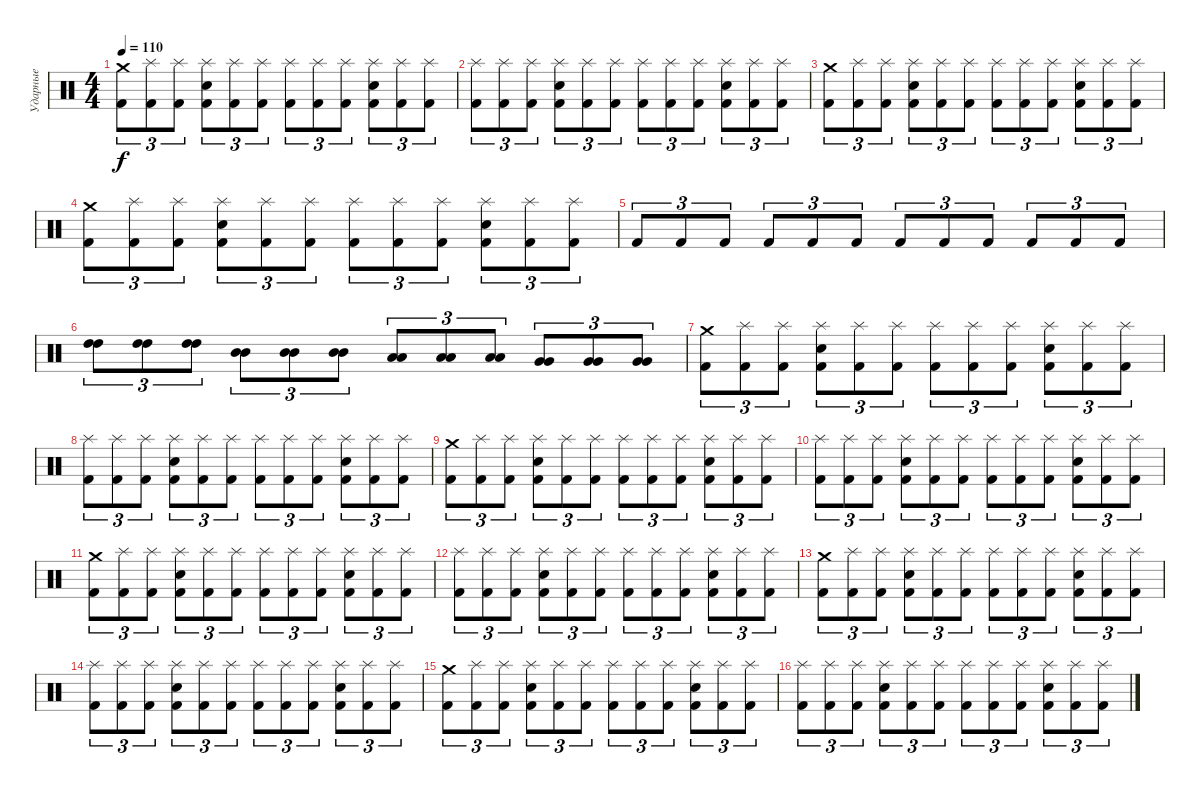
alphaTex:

\track ("Ударные" "Ударные") {instrument percussion}
\staff {score}
\articulation defaults
\ts (4 4)
\tempo 110
\clef neutral
\ks c
("Crash medium (hit)" "Kick (hit) 2").8{tu (3 2) dy f} ("Splash (hit)" "Kick (hit) 2").8{tu (3 2)} ("Splash (hit)" "Kick (hit) 2").8{tu (3 2)} ("Splash (hit)" "Electric Snare (hit)" "Kick (hit) 2").8{tu (3 2)} ("Splash (hit)" "Kick (hit) 2").8{tu (3 2)} ("Splash (hit)" "Kick (hit) 2").8{tu (3 2)} ("Splash (hit)" "Kick (hit) 2").8{tu (3 2)} ("Splash (hit)" "Kick (hit) 2").8{tu (3 2)} ("Splash (hit)" "Kick (hit) 2").8{tu (3 2)} ("Splash (hit)" "Electric Snare (hit)" "Kick (hit) 2").8{tu (3 2)} ("Splash (hit)" "Kick (hit) 2").8{tu (3 2)} ("Splash (hit)" "Kick (hit) 2").8{tu (3 2)} |
("Splash (hit)" "Kick (hit) 2").8{tu (3 2)} ("Splash (hit)" "Kick (hit) 2").8{tu (3 2)} ("Splash (hit)" "Kick (hit) 2").8{tu (3 2)} ("Splash (hit)" "Electric Snare (hit)" "Kick (hit) 2").8{tu (3 2)} ("Splash (hit)" "Kick (hit) 2").8{tu (3 2)} ("Splash (hit)" "Kick (hit) 2").8{tu (3 2)} ("Splash (hit)" "Kick (hit) 2").8{tu (3 2)} ("Splash (hit)" "Kick (hit) 2").8{tu (3 2)} ("Splash (hit)" "Kick (hit) 2").8{tu (3 2)} ("Splash (hit)" "Electric Snare (hit)" "Kick (hit) 2").8{tu (3 2)} ("Splash (hit)" "Kick (hit) 2").8{tu (3 2)} ("Splash (hit)" "Kick (hit) 2").8{tu (3 2)} |
("Crash medium (hit)" "Kick (hit) 2").8{tu (3 2)} ("Splash (hit)" "Kick (hit) 2").8{tu (3 2)} ("Splash (hit)" "Kick (hit) 2").8{tu (3 2)} ("Splash (hit)" "Electric Snare (hit)" "Kick (hit) 2").8{tu (3 2)} ("Splash (hit)" "Kick (hit) 2").8{tu (3 2)} ("Splash (hit)" "Kick (hit) 2").8{tu (3 2)} ("Splash (hit)" "Kick (hit) 2").8{tu (3 2)} ("Splash (hit)" "Kick (hit) 2").8{tu (3 2)} ("Splash (hit)" "Kick (hit) 2").8{tu (3 2)} ("Splash (hit)" "Electric Snare (hit)" "Kick (hit) 2").8{tu (3 2)} ("Splash (hit)" "Kick (hit) 2").8{tu (3 2)} ("Splash (hit)" "Kick (hit) 2").8{tu (3 2)} |
("Crash medium (hit)" "Kick (hit) 2").8{tu (3 2)} ("Splash (hit)" "Kick (hit) 2").8{tu (3 2)} ("Splash (hit)" "Kick (hit) 2").8{tu (3 2)} ("Splash (hit)" "Electric Snare (hit)" "Kick (hit) 2").8{tu (3 2)} ("Splash (hit)" "Kick (hit) 2").8{tu (3 2)} ("Splash (hit)" "Kick (hit) 2").8{tu (3 2)} ("Splash (hit)" "Kick (hit) 2").8{tu (3 2)} ("Splash (hit)" "Kick (hit) 2").8{tu (3 2)} ("Splash (hit)" "Kick (hit) 2").8{tu (3 2)} ("Splash (hit)" "Electric Snare (hit)" "Kick (hit) 2").8{tu (3 2)} ("Splash (hit)" "Kick (hit) 2").8{tu (3 2)} ("Splash (hit)" "Kick (hit) 2").8{tu (3 2)} |
"Kick (hit) 2".8{tu (3 2)} "Kick (hit) 2".8{tu (3 2)} "Kick (hit) 2".8{tu (3 2)} "Kick (hit) 2".8{tu (3 2)} "Kick (hit) 2".8{tu (3 2)} "Kick (hit) 2".8{tu (3 2)} "Kick (hit) 2".8{tu (3 2)} "Kick (hit) 2".8{tu (3 2)} "Kick (hit) 2".8{tu (3 2)} "Kick (hit) 2".8{tu (3 2)} "Kick (hit) 2".8{tu (3 2)} "Kick (hit) 2".8{tu (3 2)} |
("High Tom (hit)" "High Tom (hit)").8{tu (3 2)} ("High Tom (hit)" "High Tom (hit)").8{tu (3 2)} ("High Tom (hit)" "High Tom (hit)").8{tu (3 2)} ("Mid Tom (hit)" "Mid Tom (hit)").8{tu (3 2)} ("Mid Tom (hit)" "Mid Tom (hit)").8{tu (3 2)} ("Mid Tom (hit)" "Mid Tom (hit)").8{tu (3 2)} ("Low Tom (hit)" "Low Tom (hit)").8{tu (3 2)} ("Low Tom (hit)" "Low Tom (hit)").8{tu (3 2)} ("Low Tom (hit)" "Low Tom (hit)").8{tu (3 2)} ("Very Low Tom (hit)" "Very Low Tom (hit)").8{tu (3 2)} ("Very Low Tom (hit)" "Very Low Tom (hit)").8{tu (3 2)} ("Very Low Tom (hit)" "Very Low Tom (hit)").8{tu (3 2)} |
("Crash medium (hit)" "Kick (hit) 2").8{tu (3 2)} ("Splash (hit)" "Kick (hit) 2").8{tu (3 2)} ("Splash (hit)" "Kick (hit) 2").8{tu (3 2)} ("Splash (hit)" "Electric Snare (hit)" "Kick (hit) 2").8{tu (3 2)} ("Splash (hit)" "Kick (hit) 2").8{tu (3 2)} ("Splash (hit)" "Kick (hit) 2").8{tu (3 2)} ("Splash (hit)" "Kick (hit) 2").8{tu (3 2)} ("Splash (hit)" "Kick (hit) 2").8{tu (3 2)} ("Splash (hit)" "Kick (hit) 2").8{tu (3 2)} ("Splash (hit)" "Electric Snare (hit)" "Kick (hit) 2").8{tu (3 2)} ("Splash (hit)" "Kick (hit) 2").8{tu (3 2)} ("Splash (hit)" "Kick (hit) 2").8{tu (3 2)} |
("Splash (hit)" "Kick (hit) 2").8{tu (3 2)} ("Splash (hit)" "Kick (hit) 2").8{tu (3 2)} ("Splash (hit)" "Kick (hit) 2").8{tu (3 2)} ("Splash (hit)" "Electric Snare (hit)" "Kick (hit) 2").8{tu (3 2)} ("Splash (hit)" "Kick (hit) 2").8{tu (3 2)} ("Splash (hit)" "Kick (hit) 2").8{tu (3 2)} ("Splash (hit)" "Kick (hit) 2").8{tu (3 2)} ("Splash (hit)" "Kick (hit) 2").8{tu (3 2)} ("Splash (hit)" "Kick (hit) 2").8{tu (3 2)} ("Splash (hit)" "Electric Snare (hit)" "Kick (hit) 2").8{tu (3 2)} ("Splash (hit)" "Kick (hit) 2").8{tu (3 2)} ("Splash (hit)" "Kick (hit) 2").8{tu (3 2)} |
("Crash medium (hit)" "Kick (hit) 2").8{tu (3 2)} ("Splash (hit)" "Kick (hit) 2").8{tu (3 2)} ("Splash (hit)" "Kick (hit) 2").8{tu (3 2)} ("Splash (hit)" "Electric Snare (hit)" "Kick (hit) 2").8{tu (3 2)} ("Splash (hit)" "Kick (hit) 2").8{tu (3 2)} ("Splash (hit)" "Kick (hit) 2").8{tu (3 2)} ("Splash (hit)" "Kick (hit) 2").8{tu (3 2)} ("Splash (hit)" "Kick (hit) 2").8{tu (3 2)} ("Splash (hit)" "Kick (hit) 2").8{tu (3 2)} ("Splash (hit)" "Electric Snare (hit)" "Kick (hit) 2").8{tu (3 2)} ("Splash (hit)" "Kick (hit) 2").8{tu (3 2)} ("Splash (hit)" "Kick (hit) 2").8{tu (3 2)} |
("Splash (hit)" "Kick (hit) 2").8{tu (3 2)} ("Splash (hit)" "Kick (hit) 2").8{tu (3 2)} ("Splash (hit)" "Kick (hit) 2").8{tu (3 2)} ("Splash (hit)" "Electric Snare (hit)" "Kick (hit) 2").8{tu (3 2)} ("Splash (hit)" "Kick (hit) 2").8{tu (3 2)} ("Splash (hit)" "Kick (hit) 2").8{tu (3 2)} ("Splash (hit)" "Kick (hit) 2").8{tu (3 2)} ("Splash (hit)" "Kick (hit) 2").8{tu (3 2)} ("Splash (hit)" "Kick (hit) 2").8{tu (3 2)} ("Splash (hit)" "Electric Snare (hit)" "Kick (hit) 2").8{tu (3 2)} ("Splash (hit)" "Kick (hit) 2").8{tu (3 2)} ("Splash (hit)" "Kick (hit) 2").8{tu (3 2)} |
("Crash medium (hit)" "Kick (hit) 2").8{tu (3 2)} ("Splash (hit)" "Kick (hit) 2").8{tu (3 2)} ("Splash (hit)" "Kick (hit) 2").8{tu (3 2)} ("Splash (hit)" "Electric Snare (hit)" "Kick (hit) 2").8{tu (3 2)} ("Splash (hit)" "Kick (hit) 2").8{tu (3 2)} ("Splash (hit)" "Kick (hit) 2").8{tu (3 2)} ("Splash (hit)" "Kick (hit) 2").8{tu (3 2)} ("Splash (hit)" "Kick (hit) 2").8{tu (3 2)} ("Splash (hit)" "Kick (hit) 2").8{tu (3 2)} ("Splash (hit)" "Electric Snare (hit)" "Kick (hit) 2").8{tu (3 2)} ("Splash (hit)" "Kick (hit) 2").8{tu (3 2)} ("Splash (hit)" "Kick (hit) 2").8{tu (3 2)} |
("Splash (hit)" "Kick (hit) 2").8{tu (3 2)} ("Splash (hit)" "Kick (hit) 2").8{tu (3 2)} ("Splash (hit)" "Kick (hit) 2").8{tu (3 2)} ("Splash (hit)" "Electric Snare (hit)" "Kick (hit) 2").8{tu (3 2)} ("Splash (hit)" "Kick (hit) 2").8{tu (3 2)} ("Splash (hit)" "Kick (hit) 2").8{tu (3 2)} ("Splash (hit)" "Kick (hit) 2").8{tu (3 2)} ("Splash (hit)" "Kick (hit) 2").8{tu (3 2)} ("Splash (hit)" "Kick (hit) 2").8{tu (3 2)} ("Splash (hit)" "Electric Snare (hit)" "Kick (hit) 2").8{tu (3 2)} ("Splash (hit)" "Kick (hit) 2").8{tu (3 2)} ("Splash (hit)" "Kick (hit) 2").8{tu (3 2)} |
("Crash medium (hit)" "Kick (hit) 2").8{tu (3 2)} ("Splash (hit)" "Kick (hit) 2").8{tu (3 2)} ("Splash (hit)" "Kick (hit) 2").8{tu (3 2)} ("Splash (hit)" "Electric Snare (hit)" "Kick (hit) 2").8{tu (3 2)} ("Splash (hit)" "Kick (hit) 2").8{tu (3 2)} ("Splash (hit)" "Kick (hit) 2").8{tu (3 2)} ("Splash (hit)" "Kick (hit) 2").8{tu (3 2)} ("Splash (hit)" "Kick (hit) 2").8{tu (3 2)} ("Splash (hit)" "Kick (hit) 2").8{tu (3 2)} ("Splash (hit)" "Electric Snare (hit)" "Kick (hit) 2").8{tu (3 2)} ("Splash (hit)" "Kick (hit) 2").8{tu (3 2)} ("Splash (hit)" "Kick (hit) 2").8{tu (3 2)} |
("Splash (hit)" "Kick (hit) 2").8{tu (3 2)} ("Splash (hit)" "Kick (hit) 2").8{tu (3 2)} ("Splash (hit)" "Kick (hit) 2").8{tu (3 2)} ("Splash (hit)" "Electric Snare (hit)" "Kick (hit) 2").8{tu (3 2)} ("Splash (hit)" "Kick (hit) 2").8{tu (3 2)} ("Splash (hit)" "Kick (hit) 2").8{tu (3 2)} ("Splash (hit)" "Kick (hit) 2").8{tu (3 2)} ("Splash (hit)" "Kick (hit) 2").8{tu (3 2)} ("Splash (hit)" "Kick (hit) 2").8{tu (3 2)} ("Splash (hit)" "Electric Snare (hit)" "Kick (hit) 2").8{tu (3 2)} ("Splash (hit)" "Kick (hit) 2").8{tu (3 2)} ("Splash (hit)" "Kick (hit) 2").8{tu (3 2)} |
("Crash medium (hit)" "Kick (hit) 2").8{tu (3 2)} ("Splash (hit)" "Kick (hit) 2").8{tu (3 2)} ("Splash (hit)" "Kick (hit) 2").8{tu (3 2)} ("Splash (hit)" "Electric Snare (hit)" "Kick (hit) 2").8{tu (3 2)} ("Splash (hit)" "Kick (hit) 2").8{tu (3 2)} ("Splash (hit)" "Kick (hit) 2").8{tu (3 2)} ("Splash (hit)" "Kick (hit) 2").8{tu (3 2)} ("Splash (hit)" "Kick (hit) 2").8{tu (3 2)} ("Splash (hit)" "Kick (hit) 2").8{tu (3 2)} ("Splash (hit)" "Electric Snare (hit)" "Kick (hit) 2").8{tu (3 2)} ("Splash (hit)" "Kick (hit) 2").8{tu (3 2)} ("Splash (hit)" "Kick (hit) 2").8{tu (3 2)} |
("Splash (hit)" "Kick (hit) 2").8{tu (3 2)} ("Splash (hit)" "Kick (hit) 2").8{tu (3 2)} ("Splash (hit)" "Kick (hit) 2").8{tu (3 2)} ("Splash (hit)" "Electric Snare (hit)" "Kick (hit) 2").8{tu (3 2)} ("Splash (hit)" "Kick (hit) 2").8{tu (3 2)} ("Splash (hit)" "Kick (hit) 2").8{tu (3 2)} ("Splash (hit)" "Kick (hit) 2").8{tu (3 2)} ("Splash (hit)" "Kick (hit) 2").8{tu (3 2)} ("Splash (hit)" "Kick (hit) 2").8{tu (3 2)} ("Splash (hit)" "Electric Snare (hit)" "Kick (hit) 2").8{tu (3 2)} ("Splash (hit)" "Kick (hit) 2").8{tu (3 2)} ("Splash (hit)" "Kick (hit) 2").8{tu (3 2)}
